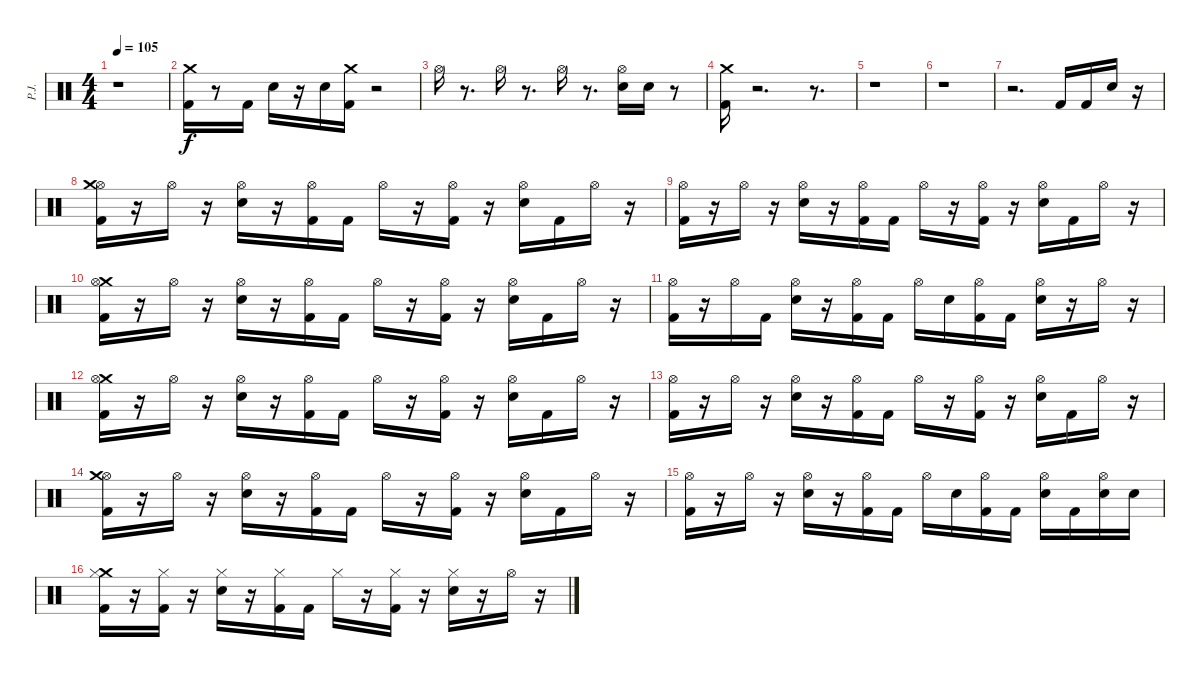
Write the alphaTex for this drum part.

\track ("P.J." "P.J.") {instrument percussion}
\staff {score}
\articulation defaults
\ts (4 4)
\tempo 105
\clef neutral
\ks c
r.1{dy f} |
("Kick (hit) 2" "Crash medium (hit)").16 r.8 "Kick (hit) 2".16 "Electric Snare (hit)".16 r.16 "Electric Snare (hit)".16 ("Kick (hit) 2" "Crash medium (hit)").16 r.2 |
"Hi-Hat (open)".16 r.8{d} "Hi-Hat (open)".16 r.8{d} "Hi-Hat (open)".16 r.8{d} ("Hi-Hat (open)" "Electric Snare (hit)").16 "Electric Snare (hit)".16 r.8 |
("Kick (hit) 2" "Crash medium (hit)").16 r.2{d} r.8{d} |
r.1 |
r.1 |
r.2{d} "Kick (hit) 2".16 "Kick (hit) 2".16 "Electric Snare (hit)".16 r.16 |
("Hi-Hat (open)" "Crash medium (hit)" "Kick (hit) 2").16 r.16 "Hi-Hat (open)".16 r.16 ("Hi-Hat (open)" "Electric Snare (hit)").16 r.16 ("Kick (hit) 2" "Hi-Hat (open)").16 "Kick (hit) 2".16 "Hi-Hat (open)".16 r.16 ("Hi-Hat (open)" "Kick (hit) 2").16 r.16 ("Electric Snare (hit)" "Hi-Hat (open)").16 "Kick (hit) 2".16 "Hi-Hat (open)".16 r.16 |
("Kick (hit) 2" "Hi-Hat (open)").16 r.16 "Hi-Hat (open)".16 r.16 ("Hi-Hat (open)" "Electric Snare (hit)").16 r.16 ("Kick (hit) 2" "Hi-Hat (open)").16 "Kick (hit) 2".16 "Hi-Hat (open)".16 r.16 ("Kick (hit) 2" "Hi-Hat (open)").16 r.16 ("Hi-Hat (open)" "Electric Snare (hit)").16 "Kick (hit) 2".16 "Hi-Hat (open)".16 r.16 |
("Kick (hit) 2" "Crash medium (hit)" "Hi-Hat (open)").16 r.16 "Hi-Hat (open)".16 r.16 ("Electric Snare (hit)" "Hi-Hat (open)").16 r.16 ("Kick (hit) 2" "Hi-Hat (open)").16 "Kick (hit) 2".16 "Hi-Hat (open)".16 r.16 ("Kick (hit) 2" "Hi-Hat (open)").16 r.16 ("Hi-Hat (open)" "Electric Snare (hit)").16 "Kick (hit) 2".16 "Hi-Hat (open)".16 r.16 |
("Kick (hit) 2" "Hi-Hat (open)").16 r.16 "Hi-Hat (open)".16 "Kick (hit) 2".16 ("Hi-Hat (open)" "Electric Snare (hit)").16 r.16 ("Kick (hit) 2" "Hi-Hat (open)").16 "Kick (hit) 2".16 "Hi-Hat (open)".16 "Electric Snare (hit)".16 ("Kick (hit) 2" "Hi-Hat (open)").16 "Kick (hit) 2".16 ("Hi-Hat (open)" "Electric Snare (hit)").16 r.16 "Hi-Hat (open)".16 r.16 |
("Kick (hit) 2" "Crash medium (hit)" "Hi-Hat (open)").16 r.16 "Hi-Hat (open)".16 r.16 ("Hi-Hat (open)" "Electric Snare (hit)").16 r.16 ("Kick (hit) 2" "Hi-Hat (open)").16 "Kick (hit) 2".16 "Hi-Hat (open)".16 r.16 ("Kick (hit) 2" "Hi-Hat (open)").16 r.16 ("Hi-Hat (open)" "Electric Snare (hit)").16 "Kick (hit) 2".16 "Hi-Hat (open)".16 r.16 |
("Kick (hit) 2" "Hi-Hat (open)").16 r.16 "Hi-Hat (open)".16 r.16 ("Electric Snare (hit)" "Hi-Hat (open)").16 r.16 ("Hi-Hat (open)" "Kick (hit) 2").16 "Kick (hit) 2".16 "Hi-Hat (open)".16 r.16 ("Hi-Hat (open)" "Kick (hit) 2").16 r.16 ("Electric Snare (hit)" "Hi-Hat (open)").16 "Kick (hit) 2".16 "Hi-Hat (open)".16 r.16 |
("Hi-Hat (open)" "Crash medium (hit)" "Kick (hit) 2").16 r.16 "Hi-Hat (open)".16 r.16 ("Hi-Hat (open)" "Electric Snare (hit)").16 r.16 ("Hi-Hat (open)" "Kick (hit) 2").16 "Kick (hit) 2".16 "Hi-Hat (open)".16 r.16 ("Hi-Hat (open)" "Kick (hit) 2").16 r.16 ("Electric Snare (hit)" "Hi-Hat (open)").16 "Kick (hit) 2".16 "Hi-Hat (open)".16 r.16 |
("Kick (hit) 2" "Hi-Hat (open)").16 r.16 "Hi-Hat (open)".16 r.16 ("Hi-Hat (open)" "Electric Snare (hit)").16 r.16 ("Kick (hit) 2" "Hi-Hat (open)").16 "Kick (hit) 2".16 "Hi-Hat (open)".16 "Electric Snare (hit)".16 ("Hi-Hat (open)" "Kick (hit) 2").16 "Kick (hit) 2".16 ("Hi-Hat (open)" "Electric Snare (hit)").16 "Kick (hit) 2".16 ("Electric Snare (hit)" "Hi-Hat (open)").16 "Electric Snare (hit)".16 |
("Kick (hit) 2" "Crash medium (hit)" "Hi-Hat (closed)").16 r.16 ("Kick (hit) 2" "Hi-Hat (closed)").16 r.16 ("Electric Snare (hit)" "Hi-Hat (closed)").16 r.16 ("Kick (hit) 2" "Hi-Hat (closed)").16 "Kick (hit) 2".16 "Hi-Hat (closed)".16 r.16 ("Kick (hit) 2" "Hi-Hat (closed)").16 r.16 ("Electric Snare (hit)" "Hi-Hat (closed)").16 r.16 "Hi-Hat (open)".16 r.16
